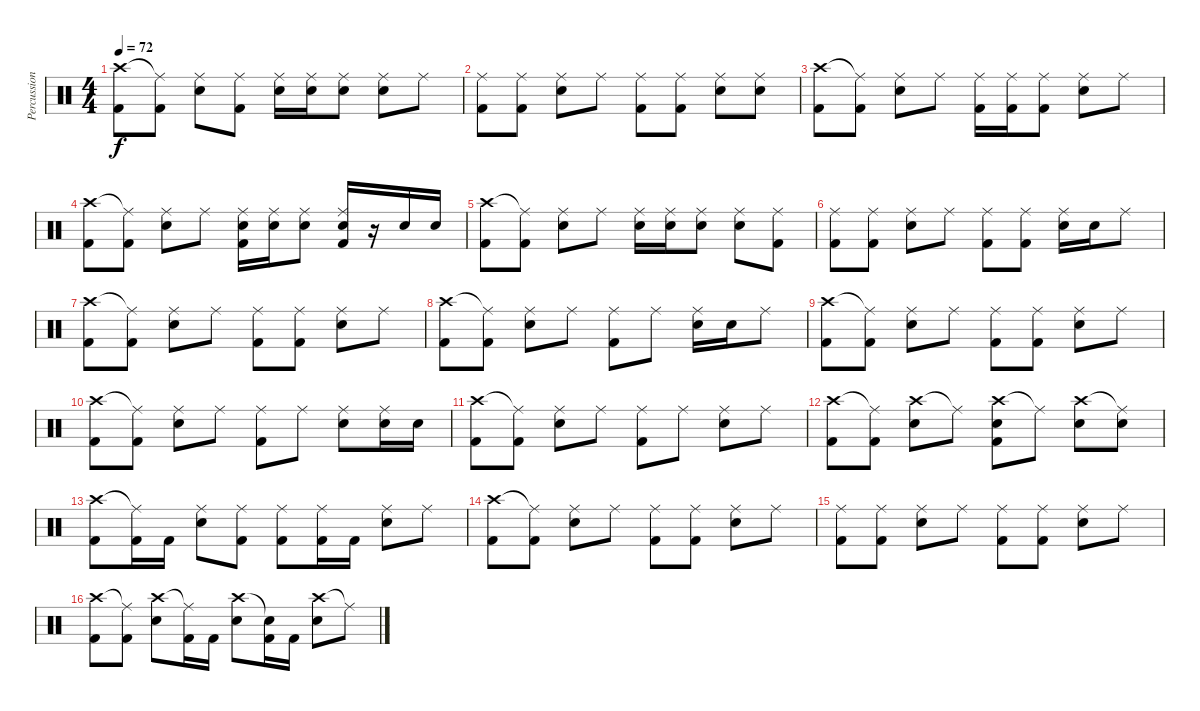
\track ("Percussion" "Percussion") {instrument percussion}
\staff {score}
\articulation defaults
\ts (4 4)
\tempo 72
\clef neutral
\ks c
("Crash high (hit)" "Kick (hit) 2").8{dy f} ("Ride (middle)"{t} "Kick (hit) 2").8 ("Ride (middle)" "Electric Snare (hit)").8 ("Ride (middle)" "Kick (hit) 2").8 ("Ride (middle)" "Electric Snare (hit)").16 ("Ride (middle)" "Electric Snare (hit)").16 ("Ride (middle)" "Electric Snare (hit)").8 ("Ride (middle)" "Electric Snare (hit)").8 "Ride (middle)".8 |
("Ride (middle)" "Kick (hit) 2").8 ("Ride (middle)" "Kick (hit) 2").8 ("Ride (middle)" "Electric Snare (hit)").8 "Ride (middle)".8 ("Ride (middle)" "Kick (hit) 2").8 ("Ride (middle)" "Kick (hit) 2").8 ("Ride (middle)" "Electric Snare (hit)").8 ("Ride (middle)" "Electric Snare (hit)").8 |
("Crash high (hit)" "Kick (hit) 2").8 ("Ride (middle)"{t} "Kick (hit) 2").8 ("Ride (middle)" "Electric Snare (hit)").8 "Ride (middle)".8 ("Ride (middle)" "Kick (hit) 2").16 ("Ride (middle)" "Kick (hit) 2").16 ("Ride (middle)" "Kick (hit) 2").8 ("Ride (middle)" "Electric Snare (hit)").8 "Ride (middle)".8 |
("Crash high (hit)" "Kick (hit) 2").8 ("Ride (middle)"{t} "Kick (hit) 2").8 ("Ride (middle)" "Electric Snare (hit)").8 "Ride (middle)".8 ("Ride (middle)" "Electric Snare (hit)" "Kick (hit) 2").16 ("Ride (middle)" "Electric Snare (hit)").16 ("Ride (middle)" "Electric Snare (hit)").8 ("Ride (middle)" "Electric Snare (hit)" "Kick (hit) 2").16 r.16 "Electric Snare (hit)".16 "Electric Snare (hit)".16 |
("Crash high (hit)" "Kick (hit) 2").8 ("Ride (middle)"{t} "Kick (hit) 2").8 ("Ride (middle)" "Electric Snare (hit)").8 "Ride (middle)".8 ("Ride (middle)" "Electric Snare (hit)").16 ("Ride (middle)" "Electric Snare (hit)").16 ("Ride (middle)" "Electric Snare (hit)").8 ("Ride (middle)" "Electric Snare (hit)").8 ("Ride (middle)" "Kick (hit) 2").8 |
("Ride (middle)" "Kick (hit) 2").8 ("Ride (middle)" "Kick (hit) 2").8 ("Ride (middle)" "Electric Snare (hit)").8 "Ride (middle)".8 ("Ride (middle)" "Kick (hit) 2").8 ("Ride (middle)" "Kick (hit) 2").8 ("Ride (middle)" "Electric Snare (hit)").16 "Electric Snare (hit)".16 "Ride (middle)".8 |
("Crash high (hit)" "Kick (hit) 2").8 ("Ride (middle)"{t} "Kick (hit) 2").8 ("Ride (middle)" "Electric Snare (hit)").8 "Ride (middle)".8 ("Ride (middle)" "Kick (hit) 2").8 ("Ride (middle)" "Kick (hit) 2").8 ("Ride (middle)" "Electric Snare (hit)").8 "Ride (middle)".8 |
("Crash high (hit)" "Kick (hit) 2").8 ("Ride (middle)"{t} "Kick (hit) 2").8 ("Ride (middle)" "Electric Snare (hit)").8 "Ride (middle)".8 ("Ride (middle)" "Kick (hit) 2").8 "Ride (middle)".8 ("Ride (middle)" "Electric Snare (hit)").16 "Electric Snare (hit)".16 "Ride (middle)".8 |
("Crash high (hit)" "Kick (hit) 2").8 ("Ride (middle)"{t} "Kick (hit) 2").8 ("Ride (middle)" "Electric Snare (hit)").8 "Ride (middle)".8 ("Ride (middle)" "Kick (hit) 2").8 ("Ride (middle)" "Kick (hit) 2").8 ("Ride (middle)" "Electric Snare (hit)").8 "Ride (middle)".8 |
("Crash high (hit)" "Kick (hit) 2").8 ("Ride (middle)"{t} "Kick (hit) 2").8 ("Ride (middle)" "Electric Snare (hit)").8 "Ride (middle)".8 ("Ride (middle)" "Kick (hit) 2").8 "Ride (middle)".8 ("Ride (middle)" "Electric Snare (hit)").8 ("Ride (middle)" "Electric Snare (hit)").16 "Electric Snare (hit)".16 |
("Crash high (hit)" "Kick (hit) 2").8 ("Ride (middle)"{t} "Kick (hit) 2").8 ("Ride (middle)" "Electric Snare (hit)").8 "Ride (middle)".8 ("Ride (middle)" "Kick (hit) 2").8 "Ride (middle)".8 ("Ride (middle)" "Electric Snare (hit)").8 "Ride (middle)".8 |
("Crash high (hit)" "Kick (hit) 2").8 ("Ride (middle)"{t} "Kick (hit) 2").8 ("Crash high (hit)" "Electric Snare (hit)").8 "Ride (middle)"{t}.8 ("Crash high (hit)" "Electric Snare (hit)" "Kick (hit) 2").8 "Ride (middle)"{t}.8 ("Crash high (hit)" "Electric Snare (hit)").8 ("Ride (middle)"{t} "Electric Snare (hit)").8 |
("Crash high (hit)" "Kick (hit) 2").8 ("Ride (middle)"{t} "Kick (hit) 2").16 "Kick (hit) 2".16 ("Ride (middle)" "Electric Snare (hit)").8 ("Ride (middle)" "Kick (hit) 2").8 ("Ride (middle)" "Kick (hit) 2").8 ("Ride (middle)" "Kick (hit) 2").16 "Kick (hit) 2".16 ("Ride (middle)" "Electric Snare (hit)").8 "Ride (middle)".8 |
("Crash high (hit)" "Kick (hit) 2").8 ("Ride (middle)"{t} "Kick (hit) 2").8 ("Ride (middle)" "Electric Snare (hit)").8 "Ride (middle)".8 ("Ride (middle)" "Kick (hit) 2").8 ("Ride (middle)" "Kick (hit) 2").8 ("Ride (middle)" "Electric Snare (hit)").8 "Ride (middle)".8 |
("Ride (middle)" "Kick (hit) 2").8 ("Ride (middle)" "Kick (hit) 2").8 ("Ride (middle)" "Electric Snare (hit)").8 "Ride (middle)".8 ("Ride (middle)" "Kick (hit) 2").8 ("Ride (middle)" "Kick (hit) 2").8 ("Ride (middle)" "Electric Snare (hit)").8 "Ride (middle)".8 |
("Crash high (hit)" "Kick (hit) 2").8 ("Ride (middle)"{t} "Kick (hit) 2").8 ("Crash high (hit)" "Electric Snare (hit)").8 ("Ride (middle)"{t} "Kick (hit) 2").16 "Kick (hit) 2".16 ("Crash high (hit)" "Electric Snare (hit)").8 ("Snare (hit)"{t} "Kick (hit) 2").16 "Kick (hit) 2".16 ("Crash high (hit)" "Electric Snare (hit)").8 "Ride (middle)"{t}.8
